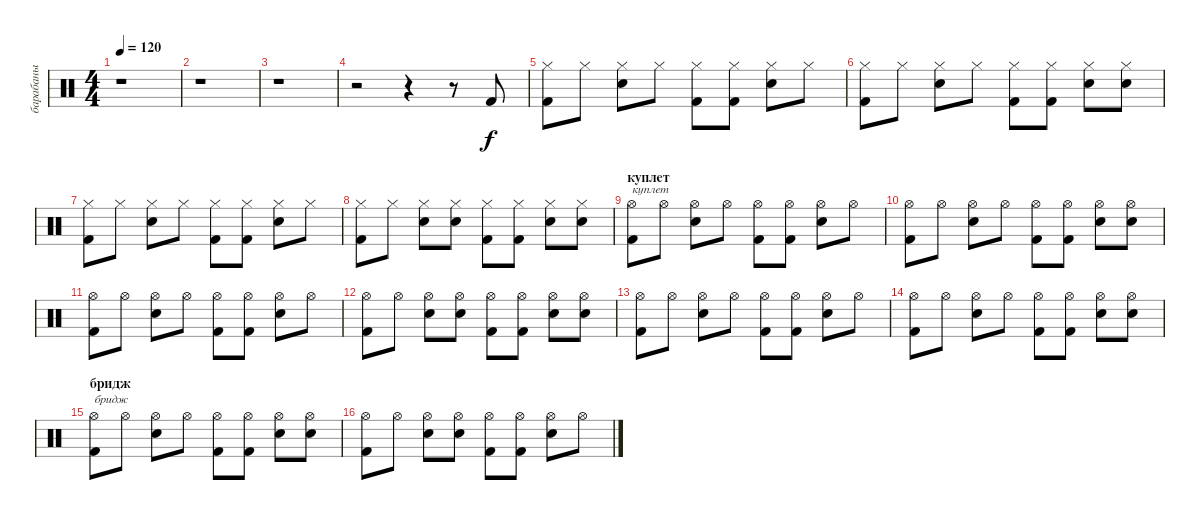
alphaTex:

\track ("барабаны" "барабаны") {instrument percussion}
\staff {score}
\articulation defaults
\ts (4 4)
\tempo 120
\clef neutral
\ks c
r.1{dy f} |
r.1 |
r.1 |
r.2 r.4 r.8 "Kick (hit) 2".8 |
("Hi-Hat (closed)" "Kick (hit) 2").8 "Hi-Hat (closed)".8 ("Hi-Hat (closed)" "Snare (hit) 2").8 "Hi-Hat (closed)".8 ("Hi-Hat (closed)" "Kick (hit) 2").8 ("Hi-Hat (closed)" "Kick (hit) 2").8 ("Hi-Hat (closed)" "Snare (hit) 2").8 "Hi-Hat (closed)".8 |
("Hi-Hat (closed)" "Kick (hit) 2").8 "Hi-Hat (closed)".8 ("Hi-Hat (closed)" "Snare (hit) 2").8 "Hi-Hat (closed)".8 ("Hi-Hat (closed)" "Kick (hit) 2").8 ("Hi-Hat (closed)" "Kick (hit) 2").8 ("Hi-Hat (closed)" "Snare (hit) 2").8 ("Hi-Hat (closed)" "Snare (hit) 2").8 |
("Hi-Hat (closed)" "Kick (hit) 2").8 "Hi-Hat (closed)".8 ("Hi-Hat (closed)" "Snare (hit) 2").8 "Hi-Hat (closed)".8 ("Hi-Hat (closed)" "Kick (hit) 2").8 ("Hi-Hat (closed)" "Kick (hit) 2").8 ("Hi-Hat (closed)" "Snare (hit) 2").8 "Hi-Hat (closed)".8 |
("Hi-Hat (closed)" "Kick (hit) 2").8 "Hi-Hat (closed)".8 ("Hi-Hat (closed)" "Snare (hit) 2").8 ("Hi-Hat (closed)" "Snare (hit) 2").8 ("Hi-Hat (closed)" "Kick (hit) 2").8 ("Hi-Hat (closed)" "Kick (hit) 2").8 ("Hi-Hat (closed)" "Snare (hit) 2").8 ("Hi-Hat (closed)" "Snare (hit) 2").8 |
\section ("" "куплет")
("Hi-Hat (open)" "Kick (hit) 2").8{txt "куплет"} "Hi-Hat (open)".8 ("Hi-Hat (open)" "Snare (hit) 2").8 "Hi-Hat (open)".8 ("Hi-Hat (open)" "Kick (hit) 2").8 ("Hi-Hat (open)" "Kick (hit) 2").8 ("Hi-Hat (open)" "Snare (hit) 2").8 "Hi-Hat (open)".8 |
("Hi-Hat (open)" "Kick (hit) 2").8 "Hi-Hat (open)".8 ("Hi-Hat (open)" "Snare (hit) 2").8 "Hi-Hat (open)".8 ("Hi-Hat (open)" "Kick (hit) 2").8 ("Hi-Hat (open)" "Kick (hit) 2").8 ("Hi-Hat (open)" "Snare (hit) 2").8 ("Hi-Hat (open)" "Snare (hit) 2").8 |
("Hi-Hat (open)" "Kick (hit) 2").8 "Hi-Hat (open)".8 ("Hi-Hat (open)" "Snare (hit) 2").8 "Hi-Hat (open)".8 ("Hi-Hat (open)" "Kick (hit) 2").8 ("Hi-Hat (open)" "Kick (hit) 2").8 ("Hi-Hat (open)" "Snare (hit) 2").8 "Hi-Hat (open)".8 |
("Hi-Hat (open)" "Kick (hit) 2").8 "Hi-Hat (open)".8 ("Hi-Hat (open)" "Snare (hit) 2").8 ("Hi-Hat (open)" "Snare (hit) 2").8 ("Hi-Hat (open)" "Kick (hit) 2").8 ("Hi-Hat (open)" "Kick (hit) 2").8 ("Hi-Hat (open)" "Snare (hit) 2").8 ("Hi-Hat (open)" "Snare (hit) 2").8 |
("Hi-Hat (open)" "Kick (hit) 2").8 "Hi-Hat (open)".8 ("Hi-Hat (open)" "Snare (hit) 2").8 "Hi-Hat (open)".8 ("Hi-Hat (open)" "Kick (hit) 2").8 ("Hi-Hat (open)" "Kick (hit) 2").8 ("Hi-Hat (open)" "Snare (hit) 2").8 "Hi-Hat (open)".8 |
("Hi-Hat (open)" "Kick (hit) 2").8 "Hi-Hat (open)".8 ("Hi-Hat (open)" "Snare (hit) 2").8 "Hi-Hat (open)".8 ("Hi-Hat (open)" "Kick (hit) 2").8 ("Hi-Hat (open)" "Kick (hit) 2").8 ("Hi-Hat (open)" "Snare (hit) 2").8 ("Hi-Hat (open)" "Snare (hit) 2").8 |
\section ("" "бридж")
("Hi-Hat (open)" "Kick (hit) 2").8{txt "бридж"} "Hi-Hat (open)".8 ("Hi-Hat (open)" "Snare (hit) 2").8 "Hi-Hat (open)".8 ("Hi-Hat (open)" "Kick (hit) 2").8 ("Hi-Hat (open)" "Kick (hit) 2").8 ("Hi-Hat (open)" "Snare (hit) 2").8 ("Hi-Hat (open)" "Snare (hit) 2").8 |
("Hi-Hat (open)" "Kick (hit) 2").8 "Hi-Hat (open)".8 ("Hi-Hat (open)" "Snare (hit) 2").8 ("Hi-Hat (open)" "Snare (hit) 2").8 ("Hi-Hat (open)" "Kick (hit) 2").8 ("Hi-Hat (open)" "Kick (hit) 2").8 ("Hi-Hat (open)" "Snare (hit) 2").8 "Hi-Hat (open)".8
